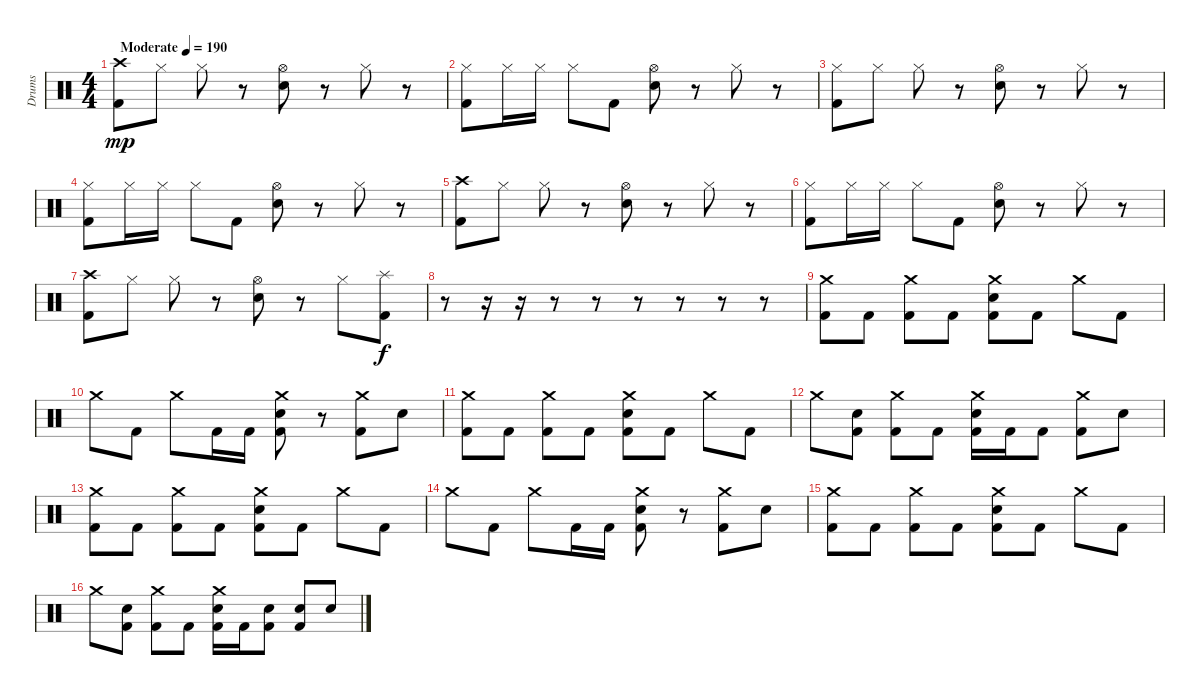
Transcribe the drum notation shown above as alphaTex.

\track ("Drums" "Drums") {instrument percussion}
\staff {score}
\articulation defaults
\ts (4 4)
\tempo (190 "Moderate")
\clef neutral
\ks c
("Crash high (hit)" "Kick (hit) 2").8{dy mp} "Hi-Hat (closed)".8 "Hi-Hat (closed)".8 r.8 ("Hi-Hat (open)" "Electric Snare (hit)").8 r.8 "Hi-Hat (closed)".8 r.8 |
("Hi-Hat (closed)" "Kick (hit) 2").8 "Hi-Hat (closed)".16 "Hi-Hat (closed)".16 "Hi-Hat (closed)".8 "Kick (hit) 2".8 ("Hi-Hat (open)" "Electric Snare (hit)").8 r.8 "Hi-Hat (closed)".8 r.8 |
("Hi-Hat (closed)" "Kick (hit) 2").8 "Hi-Hat (closed)".8 "Hi-Hat (closed)".8 r.8 ("Hi-Hat (open)" "Electric Snare (hit)").8 r.8 "Hi-Hat (closed)".8 r.8 |
("Hi-Hat (closed)" "Kick (hit) 2").8 "Hi-Hat (closed)".16 "Hi-Hat (closed)".16 "Hi-Hat (closed)".8 "Kick (hit) 2".8 ("Hi-Hat (open)" "Electric Snare (hit)").8 r.8 "Hi-Hat (closed)".8 r.8 |
("Crash high (hit)" "Kick (hit) 2").8 "Hi-Hat (closed)".8 "Hi-Hat (closed)".8 r.8 ("Hi-Hat (open)" "Electric Snare (hit)").8 r.8 "Hi-Hat (closed)".8 r.8 |
("Hi-Hat (closed)" "Kick (hit) 2").8 "Hi-Hat (closed)".16 "Hi-Hat (closed)".16 "Hi-Hat (closed)".8 "Kick (hit) 2".8 ("Hi-Hat (open)" "Electric Snare (hit)").8 r.8 "Hi-Hat (closed)".8 r.8 |
("Crash high (hit)" "Kick (hit) 2").8 "Hi-Hat (closed)".8 "Hi-Hat (closed)".8 r.8 ("Hi-Hat (open)" "Electric Snare (hit)").8 r.8 "Hi-Hat (closed)".8 ("Splash (hit)" "Kick (hit) 2").8{dy f} |
r.8 r.16 r.16 r.8 r.8 r.8 r.8 r.8 r.8 |
("Crash medium (hit)" "Kick (hit) 2").8 "Kick (hit) 2".8 ("Crash medium (hit)" "Kick (hit) 2").8 "Kick (hit) 2".8 ("Crash medium (hit)" "Electric Snare (hit)" "Kick (hit) 2").8 "Kick (hit) 2".8 "Crash medium (hit)".8 "Kick (hit) 2".8 |
"Crash medium (hit)".8 "Kick (hit) 2".8 "Crash medium (hit)".8 "Kick (hit) 2".16 "Kick (hit) 2".16 ("Crash medium (hit)" "Electric Snare (hit)" "Kick (hit) 2").8 r.8 ("Crash medium (hit)" "Kick (hit) 2").8 "Electric Snare (hit)".8 |
("Crash medium (hit)" "Kick (hit) 2").8 "Kick (hit) 2".8 ("Crash medium (hit)" "Kick (hit) 2").8 "Kick (hit) 2".8 ("Crash medium (hit)" "Electric Snare (hit)" "Kick (hit) 2").8 "Kick (hit) 2".8 "Crash medium (hit)".8 "Kick (hit) 2".8 |
"Crash medium (hit)".8 ("Electric Snare (hit)" "Kick (hit) 2").8 ("Crash medium (hit)" "Kick (hit) 2").8 "Kick (hit) 2".8 ("Crash medium (hit)" "Electric Snare (hit)" "Kick (hit) 2").16 "Kick (hit) 2".16 "Kick (hit) 2".8 ("Crash medium (hit)" "Kick (hit) 2").8 "Electric Snare (hit)".8 |
("Crash medium (hit)" "Kick (hit) 2").8 "Kick (hit) 2".8 ("Crash medium (hit)" "Kick (hit) 2").8 "Kick (hit) 2".8 ("Crash medium (hit)" "Electric Snare (hit)" "Kick (hit) 2").8 "Kick (hit) 2".8 "Crash medium (hit)".8 "Kick (hit) 2".8 |
"Crash medium (hit)".8 "Kick (hit) 2".8 "Crash medium (hit)".8 "Kick (hit) 2".16 "Kick (hit) 2".16 ("Crash medium (hit)" "Electric Snare (hit)" "Kick (hit) 2").8 r.8 ("Crash medium (hit)" "Kick (hit) 2").8 "Electric Snare (hit)".8 |
("Crash medium (hit)" "Kick (hit) 2").8 "Kick (hit) 2".8 ("Crash medium (hit)" "Kick (hit) 2").8 "Kick (hit) 2".8 ("Crash medium (hit)" "Electric Snare (hit)" "Kick (hit) 2").8 "Kick (hit) 2".8 "Crash medium (hit)".8 "Kick (hit) 2".8 |
"Crash medium (hit)".8 ("Electric Snare (hit)" "Kick (hit) 2").8 ("Crash medium (hit)" "Kick (hit) 2").8 "Kick (hit) 2".8 ("Crash medium (hit)" "Electric Snare (hit)" "Kick (hit) 2").16 "Kick (hit) 2".16 ("Electric Snare (hit)" "Kick (hit) 2").8 ("Electric Snare (hit)" "Kick (hit) 2").8 "Electric Snare (hit)".8
